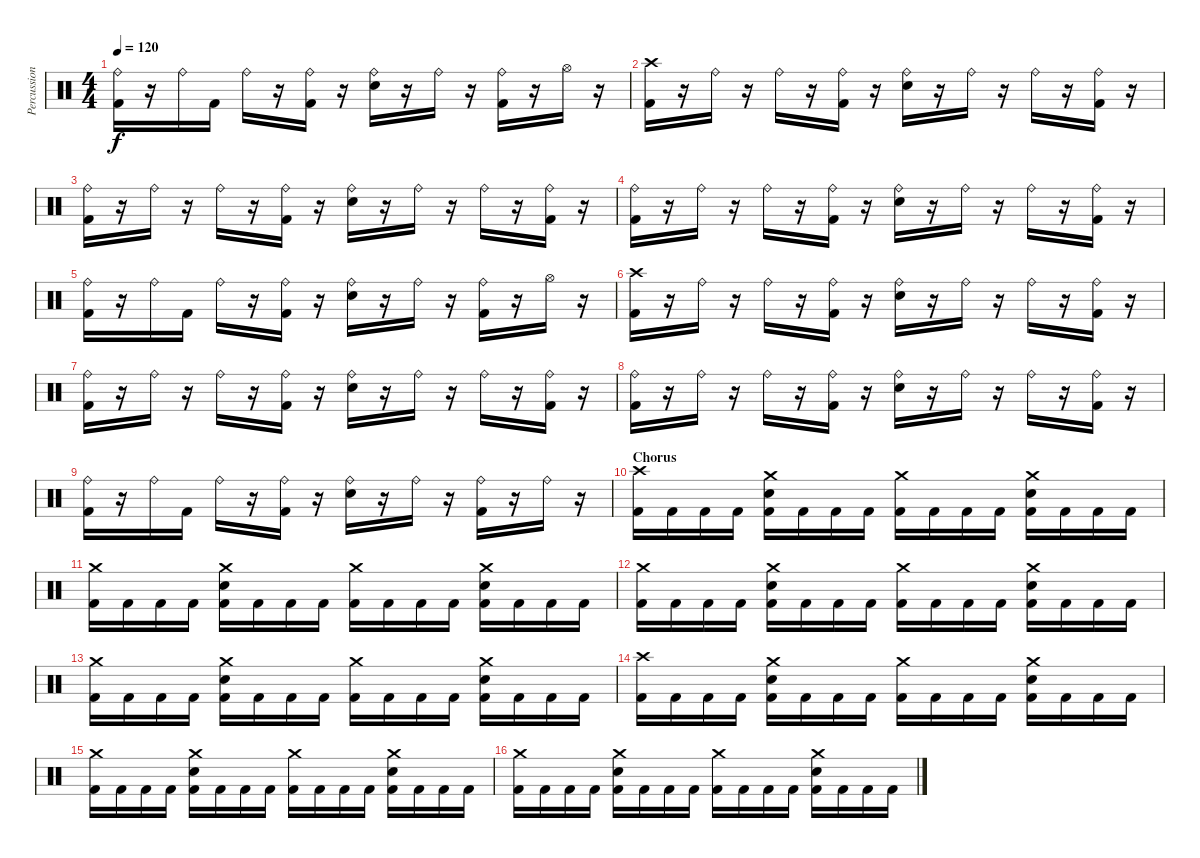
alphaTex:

\track ("Percussion" "Percussion") {instrument percussion}
\staff {score}
\articulation defaults
\ts (4 4)
\tempo 120
\clef neutral
\ks c
("Ride (bell)" "Kick (hit) 2").16{dy f} r.16 "Ride (bell)".16 "Kick (hit) 2".16 "Ride (bell)".16 r.16 ("Ride (bell)" "Kick (hit) 2").16 r.16 ("Ride (bell)" "Electric Snare (hit)").16 r.16 "Ride (bell)".16 r.16 ("Ride (bell)" "Kick (hit) 2").16 r.16 "Hi-Hat (open)".16 r.16 |
("Crash high (hit)" "Kick (hit) 2").16 r.16 "Ride (bell)".16 r.16 "Ride (bell)".16 r.16 ("Ride (bell)" "Kick (hit) 2").16 r.16 ("Ride (bell)" "Electric Snare (hit)").16 r.16 "Ride (bell)".16 r.16 "Ride (bell)".16 r.16 ("Ride (bell)" "Kick (hit) 2").16 r.16 |
("Ride (bell)" "Kick (hit) 2").16 r.16 "Ride (bell)".16 r.16 "Ride (bell)".16 r.16 ("Ride (bell)" "Kick (hit) 2").16 r.16 ("Ride (bell)" "Electric Snare (hit)").16 r.16 "Ride (bell)".16 r.16 "Ride (bell)".16 r.16 ("Ride (bell)" "Kick (hit) 2").16 r.16 |
("Ride (bell)" "Kick (hit) 2").16 r.16 "Ride (bell)".16 r.16 "Ride (bell)".16 r.16 ("Ride (bell)" "Kick (hit) 2").16 r.16 ("Ride (bell)" "Electric Snare (hit)").16 r.16 "Ride (bell)".16 r.16 "Ride (bell)".16 r.16 ("Ride (bell)" "Kick (hit) 2").16 r.16 |
("Ride (bell)" "Kick (hit) 2").16 r.16 "Ride (bell)".16 "Kick (hit) 2".16 "Ride (bell)".16 r.16 ("Ride (bell)" "Kick (hit) 2").16 r.16 ("Ride (bell)" "Electric Snare (hit)").16 r.16 "Ride (bell)".16 r.16 ("Ride (bell)" "Kick (hit) 2").16 r.16 "Hi-Hat (open)".16 r.16 |
("Crash high (hit)" "Kick (hit) 2").16 r.16 "Ride (bell)".16 r.16 "Ride (bell)".16 r.16 ("Ride (bell)" "Kick (hit) 2").16 r.16 ("Ride (bell)" "Electric Snare (hit)").16 r.16 "Ride (bell)".16 r.16 "Ride (bell)".16 r.16 ("Ride (bell)" "Kick (hit) 2").16 r.16 |
("Ride (bell)" "Kick (hit) 2").16 r.16 "Ride (bell)".16 r.16 "Ride (bell)".16 r.16 ("Ride (bell)" "Kick (hit) 2").16 r.16 ("Ride (bell)" "Electric Snare (hit)").16 r.16 "Ride (bell)".16 r.16 "Ride (bell)".16 r.16 ("Ride (bell)" "Kick (hit) 2").16 r.16 |
("Ride (bell)" "Kick (hit) 2").16 r.16 "Ride (bell)".16 r.16 "Ride (bell)".16 r.16 ("Ride (bell)" "Kick (hit) 2").16 r.16 ("Ride (bell)" "Electric Snare (hit)").16 r.16 "Ride (bell)".16 r.16 "Ride (bell)".16 r.16 ("Ride (bell)" "Kick (hit) 2").16 r.16 |
("Ride (bell)" "Kick (hit) 2").16 r.16 "Ride (bell)".16 "Kick (hit) 2".16 "Ride (bell)".16 r.16 ("Ride (bell)" "Kick (hit) 2").16 r.16 ("Ride (bell)" "Electric Snare (hit)").16 r.16 "Ride (bell)".16 r.16 ("Ride (bell)" "Kick (hit) 2").16 r.16 "Ride (bell)".16 r.16 |
\section ("" "Chorus")
("Crash high (hit)" "Kick (hit) 2").16 "Kick (hit) 2".16 "Kick (hit) 2".16 "Kick (hit) 2".16 ("Crash medium (hit)" "Electric Snare (hit)" "Kick (hit) 2").16 "Kick (hit) 2".16 "Kick (hit) 2".16 "Kick (hit) 2".16 ("Crash medium (hit)" "Kick (hit) 2").16 "Kick (hit) 2".16 "Kick (hit) 2".16 "Kick (hit) 2".16 ("Crash medium (hit)" "Electric Snare (hit)" "Kick (hit) 2").16 "Kick (hit) 2".16 "Kick (hit) 2".16 "Kick (hit) 2".16 |
("Crash medium (hit)" "Kick (hit) 2").16 "Kick (hit) 2".16 "Kick (hit) 2".16 "Kick (hit) 2".16 ("Crash medium (hit)" "Electric Snare (hit)" "Kick (hit) 2").16 "Kick (hit) 2".16 "Kick (hit) 2".16 "Kick (hit) 2".16 ("Crash medium (hit)" "Kick (hit) 2").16 "Kick (hit) 2".16 "Kick (hit) 2".16 "Kick (hit) 2".16 ("Crash medium (hit)" "Electric Snare (hit)" "Kick (hit) 2").16 "Kick (hit) 2".16 "Kick (hit) 2".16 "Kick (hit) 2".16 |
("Crash medium (hit)" "Kick (hit) 2").16 "Kick (hit) 2".16 "Kick (hit) 2".16 "Kick (hit) 2".16 ("Crash medium (hit)" "Electric Snare (hit)" "Kick (hit) 2").16 "Kick (hit) 2".16 "Kick (hit) 2".16 "Kick (hit) 2".16 ("Crash medium (hit)" "Kick (hit) 2").16 "Kick (hit) 2".16 "Kick (hit) 2".16 "Kick (hit) 2".16 ("Crash medium (hit)" "Electric Snare (hit)" "Kick (hit) 2").16 "Kick (hit) 2".16 "Kick (hit) 2".16 "Kick (hit) 2".16 |
("Crash medium (hit)" "Kick (hit) 2").16 "Kick (hit) 2".16 "Kick (hit) 2".16 "Kick (hit) 2".16 ("Crash medium (hit)" "Electric Snare (hit)" "Kick (hit) 2").16 "Kick (hit) 2".16 "Kick (hit) 2".16 "Kick (hit) 2".16 ("Crash medium (hit)" "Kick (hit) 2").16 "Kick (hit) 2".16 "Kick (hit) 2".16 "Kick (hit) 2".16 ("Crash medium (hit)" "Electric Snare (hit)" "Kick (hit) 2").16 "Kick (hit) 2".16 "Kick (hit) 2".16 "Kick (hit) 2".16 |
("Crash high (hit)" "Kick (hit) 2").16 "Kick (hit) 2".16 "Kick (hit) 2".16 "Kick (hit) 2".16 ("Crash medium (hit)" "Electric Snare (hit)" "Kick (hit) 2").16 "Kick (hit) 2".16 "Kick (hit) 2".16 "Kick (hit) 2".16 ("Crash medium (hit)" "Kick (hit) 2").16 "Kick (hit) 2".16 "Kick (hit) 2".16 "Kick (hit) 2".16 ("Crash medium (hit)" "Electric Snare (hit)" "Kick (hit) 2").16 "Kick (hit) 2".16 "Kick (hit) 2".16 "Kick (hit) 2".16 |
("Crash medium (hit)" "Kick (hit) 2").16 "Kick (hit) 2".16 "Kick (hit) 2".16 "Kick (hit) 2".16 ("Crash medium (hit)" "Electric Snare (hit)" "Kick (hit) 2").16 "Kick (hit) 2".16 "Kick (hit) 2".16 "Kick (hit) 2".16 ("Crash medium (hit)" "Kick (hit) 2").16 "Kick (hit) 2".16 "Kick (hit) 2".16 "Kick (hit) 2".16 ("Crash medium (hit)" "Electric Snare (hit)" "Kick (hit) 2").16 "Kick (hit) 2".16 "Kick (hit) 2".16 "Kick (hit) 2".16 |
("Crash medium (hit)" "Kick (hit) 2").16 "Kick (hit) 2".16 "Kick (hit) 2".16 "Kick (hit) 2".16 ("Crash medium (hit)" "Electric Snare (hit)" "Kick (hit) 2").16 "Kick (hit) 2".16 "Kick (hit) 2".16 "Kick (hit) 2".16 ("Crash medium (hit)" "Kick (hit) 2").16 "Kick (hit) 2".16 "Kick (hit) 2".16 "Kick (hit) 2".16 ("Crash medium (hit)" "Electric Snare (hit)" "Kick (hit) 2").16 "Kick (hit) 2".16 "Kick (hit) 2".16 "Kick (hit) 2".16
